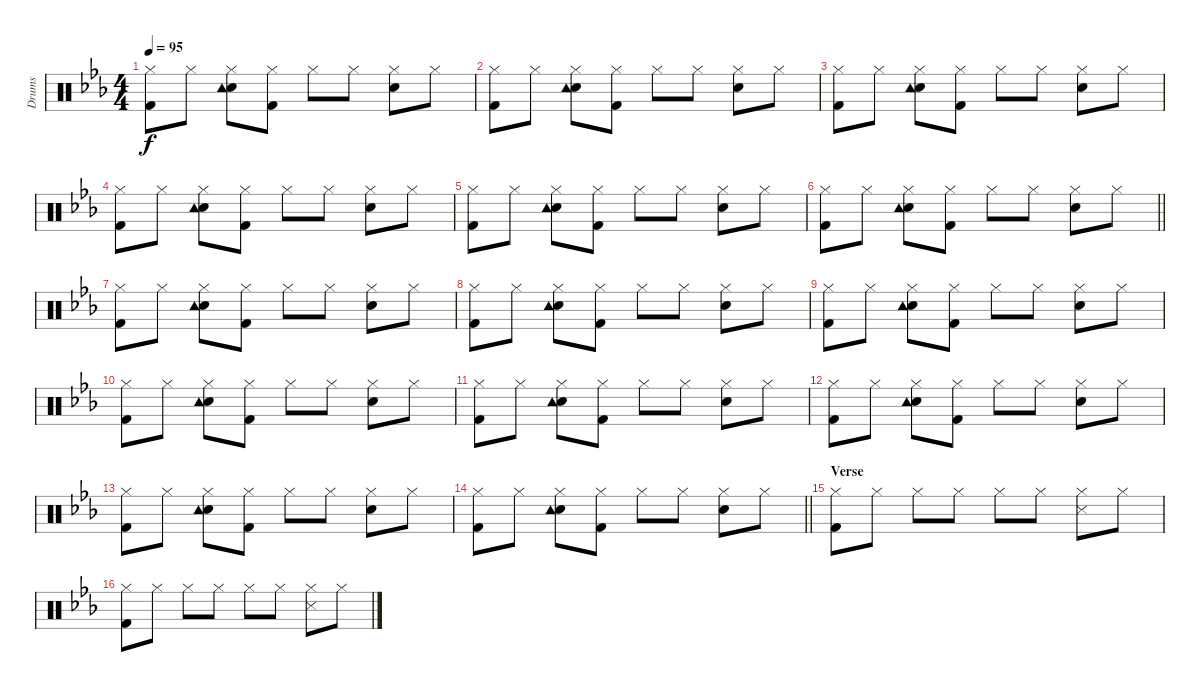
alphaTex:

\track ("Drums" "Drums") {instrument percussion}
\staff {score}
\articulation defaults
\ts (4 4)
\tempo 95
\clef neutral
\ks eb
("Hi-Hat (closed)" "Kick (hit) 2").8{dy f} "Hi-Hat (closed)".8 ("Hi-Hat (closed)" "Snare (hit) 2" "Tambourine (hit)").8 ("Hi-Hat (closed)" "Kick (hit) 2").8 "Hi-Hat (closed)".8 "Hi-Hat (closed)".8 ("Hi-Hat (closed)" "Snare (hit) 2").8 "Hi-Hat (closed)".8 |
("Hi-Hat (closed)" "Kick (hit) 2").8 "Hi-Hat (closed)".8 ("Hi-Hat (closed)" "Snare (hit) 2" "Tambourine (hit)").8 ("Hi-Hat (closed)" "Kick (hit) 2").8 "Hi-Hat (closed)".8 "Hi-Hat (closed)".8 ("Hi-Hat (closed)" "Snare (hit) 2").8 "Hi-Hat (closed)".8 |
("Hi-Hat (closed)" "Kick (hit) 2").8 "Hi-Hat (closed)".8 ("Hi-Hat (closed)" "Snare (hit) 2" "Tambourine (hit)").8 ("Hi-Hat (closed)" "Kick (hit) 2").8 "Hi-Hat (closed)".8 "Hi-Hat (closed)".8 ("Hi-Hat (closed)" "Snare (hit) 2").8 "Hi-Hat (closed)".8 |
("Hi-Hat (closed)" "Kick (hit) 2").8 "Hi-Hat (closed)".8 ("Hi-Hat (closed)" "Snare (hit) 2" "Tambourine (hit)").8 ("Hi-Hat (closed)" "Kick (hit) 2").8 "Hi-Hat (closed)".8 "Hi-Hat (closed)".8 ("Hi-Hat (closed)" "Snare (hit) 2").8 "Hi-Hat (closed)".8 |
("Hi-Hat (closed)" "Kick (hit) 2").8 "Hi-Hat (closed)".8 ("Hi-Hat (closed)" "Snare (hit) 2" "Tambourine (hit)").8 ("Hi-Hat (closed)" "Kick (hit) 2").8 "Hi-Hat (closed)".8 "Hi-Hat (closed)".8 ("Hi-Hat (closed)" "Snare (hit) 2").8 "Hi-Hat (closed)".8 |
\barLineRight lightlight
("Hi-Hat (closed)" "Kick (hit) 2").8 "Hi-Hat (closed)".8 ("Hi-Hat (closed)" "Snare (hit) 2" "Tambourine (hit)").8 ("Hi-Hat (closed)" "Kick (hit) 2").8 "Hi-Hat (closed)".8 "Hi-Hat (closed)".8 ("Hi-Hat (closed)" "Snare (hit) 2").8 "Hi-Hat (closed)".8 |
\section ("" "")
("Hi-Hat (closed)" "Kick (hit) 2").8 "Hi-Hat (closed)".8 ("Hi-Hat (closed)" "Snare (hit) 2" "Tambourine (hit)").8 ("Hi-Hat (closed)" "Kick (hit) 2").8 "Hi-Hat (closed)".8 "Hi-Hat (closed)".8 ("Hi-Hat (closed)" "Snare (hit) 2").8 "Hi-Hat (closed)".8 |
("Hi-Hat (closed)" "Kick (hit) 2").8 "Hi-Hat (closed)".8 ("Hi-Hat (closed)" "Snare (hit) 2" "Tambourine (hit)").8 ("Hi-Hat (closed)" "Kick (hit) 2").8 "Hi-Hat (closed)".8 "Hi-Hat (closed)".8 ("Hi-Hat (closed)" "Snare (hit) 2").8 "Hi-Hat (closed)".8 |
("Hi-Hat (closed)" "Kick (hit) 2").8 "Hi-Hat (closed)".8 ("Hi-Hat (closed)" "Snare (hit) 2" "Tambourine (hit)").8 ("Hi-Hat (closed)" "Kick (hit) 2").8 "Hi-Hat (closed)".8 "Hi-Hat (closed)".8 ("Hi-Hat (closed)" "Snare (hit) 2").8 "Hi-Hat (closed)".8 |
("Hi-Hat (closed)" "Kick (hit) 2").8 "Hi-Hat (closed)".8 ("Hi-Hat (closed)" "Snare (hit) 2" "Tambourine (hit)").8 ("Hi-Hat (closed)" "Kick (hit) 2").8 "Hi-Hat (closed)".8 "Hi-Hat (closed)".8 ("Hi-Hat (closed)" "Snare (hit) 2").8 "Hi-Hat (closed)".8 |
("Hi-Hat (closed)" "Kick (hit) 2").8 "Hi-Hat (closed)".8 ("Hi-Hat (closed)" "Snare (hit) 2" "Tambourine (hit)").8 ("Hi-Hat (closed)" "Kick (hit) 2").8 "Hi-Hat (closed)".8 "Hi-Hat (closed)".8 ("Hi-Hat (closed)" "Snare (hit) 2").8 "Hi-Hat (closed)".8 |
("Hi-Hat (closed)" "Kick (hit) 2").8 "Hi-Hat (closed)".8 ("Hi-Hat (closed)" "Snare (hit) 2" "Tambourine (hit)").8 ("Hi-Hat (closed)" "Kick (hit) 2").8 "Hi-Hat (closed)".8 "Hi-Hat (closed)".8 ("Hi-Hat (closed)" "Snare (hit) 2").8 "Hi-Hat (closed)".8 |
("Hi-Hat (closed)" "Kick (hit) 2").8 "Hi-Hat (closed)".8 ("Hi-Hat (closed)" "Snare (hit) 2" "Tambourine (hit)").8 ("Hi-Hat (closed)" "Kick (hit) 2").8 "Hi-Hat (closed)".8 "Hi-Hat (closed)".8 ("Hi-Hat (closed)" "Snare (hit) 2").8 "Hi-Hat (closed)".8 |
\barLineRight lightlight
("Hi-Hat (closed)" "Kick (hit) 2").8 "Hi-Hat (closed)".8 ("Hi-Hat (closed)" "Snare (hit) 2" "Tambourine (hit)").8 ("Hi-Hat (closed)" "Kick (hit) 2").8 "Hi-Hat (closed)".8 "Hi-Hat (closed)".8 ("Hi-Hat (closed)" "Snare (hit) 2").8 "Hi-Hat (closed)".8 |
\section ("" "Verse")
("Hi-Hat (closed)" "Kick (hit) 2").8 "Hi-Hat (closed)".8 "Hi-Hat (closed)".8 "Hi-Hat (closed)".8 "Hi-Hat (closed)".8 "Hi-Hat (closed)".8 ("Hi-Hat (closed)" "Snare (side stick) 3").8 "Hi-Hat (closed)".8 |
("Hi-Hat (closed)" "Kick (hit) 2").8 "Hi-Hat (closed)".8 "Hi-Hat (closed)".8 "Hi-Hat (closed)".8 "Hi-Hat (closed)".8 "Hi-Hat (closed)".8 ("Hi-Hat (closed)" "Snare (side stick) 3").8 "Hi-Hat (closed)".8
